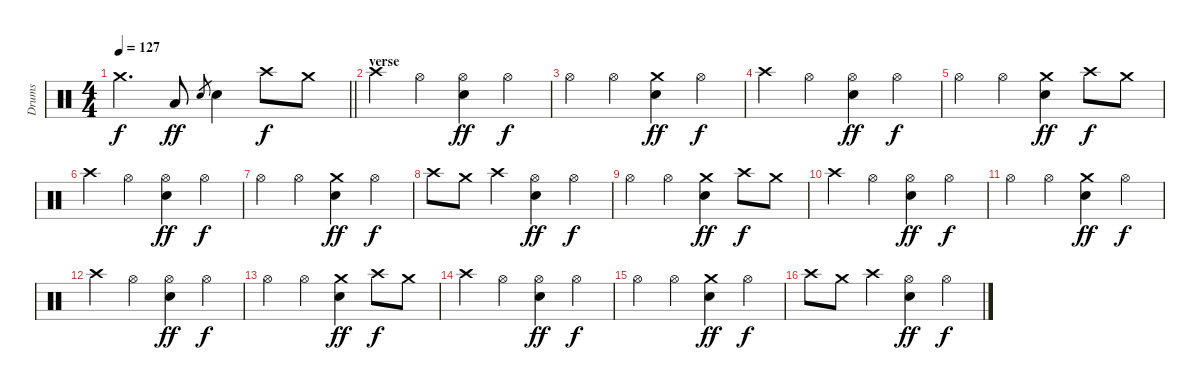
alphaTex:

\track ("Drums" "Drums") {instrument percussion}
\staff {score}
\articulation defaults
\ts (4 4)
\tempo 127
\clef neutral
\barLineRight lightlight
\ks c "Crash medium (hit)".4{d dy f} "Low Tom (hit)".8{dy ff} "Snare (hit) 2".8{gr} "Snare (hit) 2".4 "Crash high (hit)".8{dy f} "Crash medium (hit)".8
|
\section ("" "verse")
"Crash high (hit)".4 "Hi-Hat (open)".4 ("Hi-Hat (open)" "Snare (hit) 2").4{dy ff} "Hi-Hat (open)".4{dy f} |
"Hi-Hat (open)".4 "Hi-Hat (open)".4 ("Crash medium (hit)" "Snare (hit) 2").4{dy ff} "Hi-Hat (open)".4{dy f} |
"Crash high (hit)".4 "Hi-Hat (open)".4 ("Hi-Hat (open)" "Snare (hit) 2").4{dy ff} "Hi-Hat (open)".4{dy f} |
"Hi-Hat (open)".4 "Hi-Hat (open)".4 ("Crash medium (hit)" "Snare (hit) 2").4{dy ff} "Crash high (hit)".8{dy f} "Crash medium (hit)".8 |
"Crash high (hit)".4 "Hi-Hat (open)".4 ("Hi-Hat (open)" "Snare (hit) 2").4{dy ff} "Hi-Hat (open)".4{dy f} |
"Hi-Hat (open)".4 "Hi-Hat (open)".4 ("Crash medium (hit)" "Snare (hit) 2").4{dy ff} "Hi-Hat (open)".4{dy f} |
"Crash high (hit)".8 "Crash medium (hit)".8 "Crash high (hit)".4 ("Hi-Hat (open)" "Snare (hit) 2").4{dy ff} "Hi-Hat (open)".4{dy f} |
"Hi-Hat (open)".4 "Hi-Hat (open)".4 ("Crash medium (hit)" "Snare (hit) 2").4{dy ff} "Crash high (hit)".8{dy f} "Crash medium (hit)".8 |
"Crash high (hit)".4 "Hi-Hat (open)".4 ("Hi-Hat (open)" "Snare (hit) 2").4{dy ff} "Hi-Hat (open)".4{dy f} |
"Hi-Hat (open)".4 "Hi-Hat (open)".4 ("Crash medium (hit)" "Snare (hit) 2").4{dy ff} "Hi-Hat (open)".4{dy f} |
"Crash high (hit)".4 "Hi-Hat (open)".4 ("Hi-Hat (open)" "Snare (hit) 2").4{dy ff} "Hi-Hat (open)".4{dy f} |
"Hi-Hat (open)".4 "Hi-Hat (open)".4 ("Crash medium (hit)" "Snare (hit) 2").4{dy ff} "Crash high (hit)".8{dy f} "Crash medium (hit)".8 |
"Crash high (hit)".4 "Hi-Hat (open)".4 ("Hi-Hat (open)" "Snare (hit) 2").4{dy ff} "Hi-Hat (open)".4{dy f} |
"Hi-Hat (open)".4 "Hi-Hat (open)".4 ("Crash medium (hit)" "Snare (hit) 2").4{dy ff} "Hi-Hat (open)".4{dy f} |
"Crash high (hit)".8 "Crash medium (hit)".8 "Crash high (hit)".4 ("Hi-Hat (open)" "Snare (hit) 2").4{dy ff} "Hi-Hat (open)".4{dy f}
